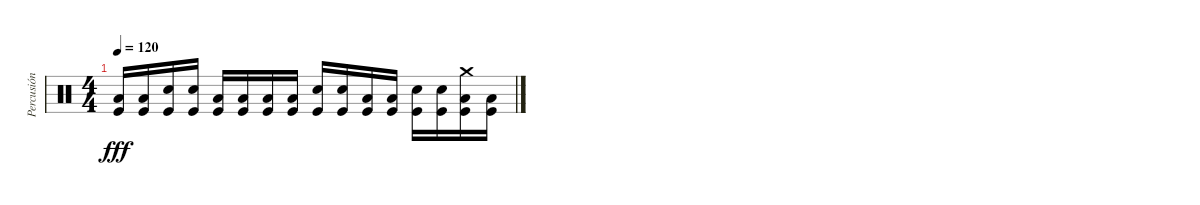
\track ("Percusión" "Percusión") {instrument percussion}
\staff {score}
\articulation defaults
\ts (4 4)
\tempo 120
\clef neutral
\ks c
("Low Floor Tom (hit)" "Kick (hit)").16{dy fff} ("Low Floor Tom (hit)" "Kick (hit)").16 ("Snare (hit) 2" "Kick (hit)").16 ("Snare (hit) 2" "Kick (hit)").16 ("Low Floor Tom (hit)" "Kick (hit)").16 ("Low Floor Tom (hit)" "Kick (hit)").16 ("Low Floor Tom (hit)" "Kick (hit)").16 ("Low Floor Tom (hit)" "Kick (hit)").16 ("Snare (hit) 2" "Kick (hit)").16 ("Snare (hit) 2" "Kick (hit)").16 ("Low Floor Tom (hit)" "Kick (hit)").16 ("Low Floor Tom (hit)" "Kick (hit)").16 ("Snare (hit) 2" "Kick (hit)").16 ("Snare (hit) 2" "Kick (hit)").16 ("Crash medium (hit)" "Low Floor Tom (hit)" "Kick (hit)").16 ("Low Floor Tom (hit)" "Kick (hit)").16
